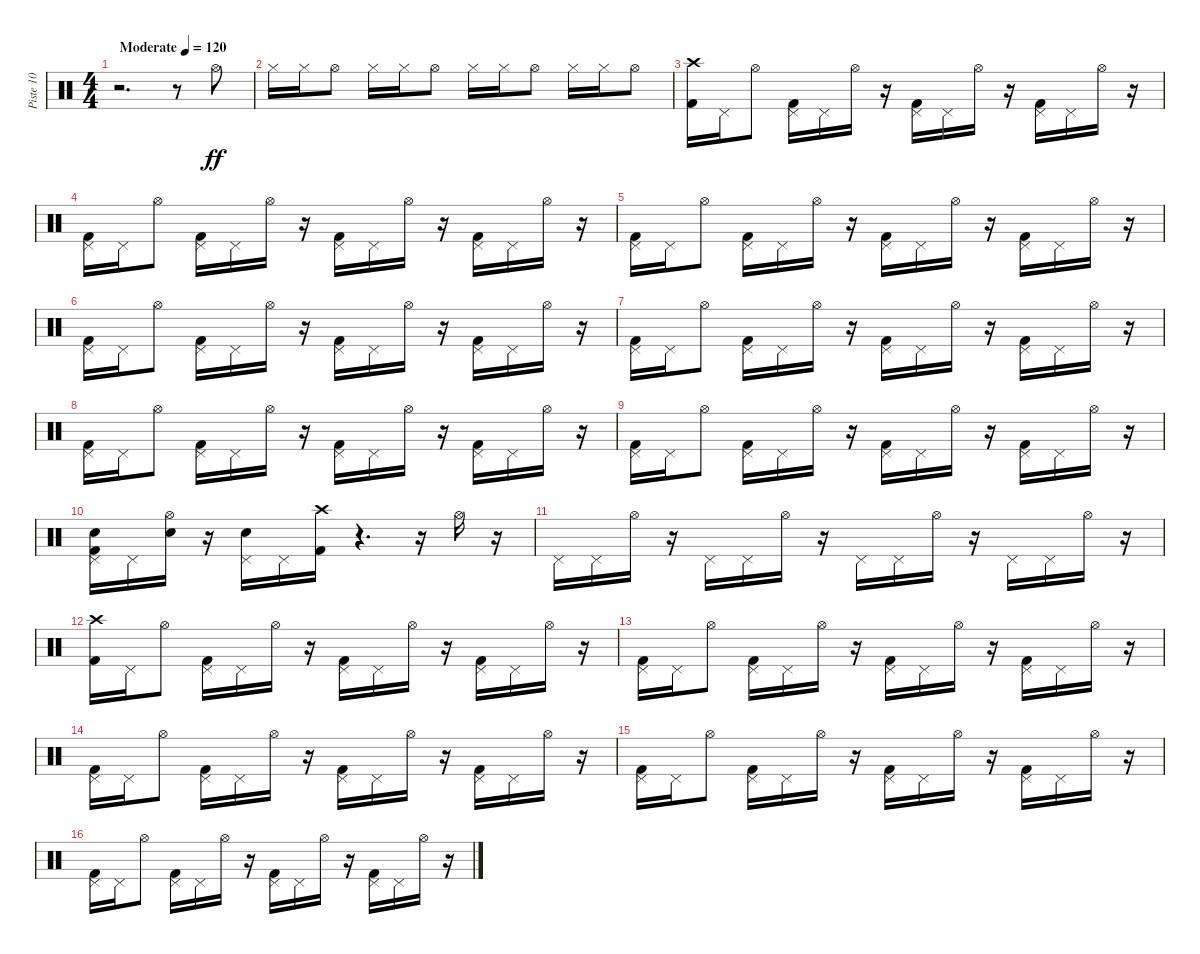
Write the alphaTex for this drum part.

\track ("Piste 10" "Piste 10") {instrument percussion}
\staff {score}
\articulation defaults
\ts (4 4)
\tempo (120 "Moderate")
\clef neutral
\ks c
r.2{d dy ff} r.8 "Hi-Hat (open)".8 |
"Hi-Hat (closed)".16 "Hi-Hat (closed)".16 "Hi-Hat (open)".8 "Hi-Hat (closed)".16{balance 4} "Hi-Hat (closed)".16 "Hi-Hat (open)".8{balance 4} "Hi-Hat (closed)".16{balance 12} "Hi-Hat (closed)".16 "Hi-Hat (open)".8 "Hi-Hat (closed)".16{balance 4} "Hi-Hat (closed)".16 "Hi-Hat (open)".8 |
("Crash high (hit)" "Kick (hit) 2").16{balance 8} "Pedal Hi-Hat (hit)".16 "Hi-Hat (open)".8 ("Kick (hit) 2" "Pedal Hi-Hat (hit)").16 "Pedal Hi-Hat (hit)".16 "Hi-Hat (open)".16 r.16 ("Kick (hit) 2" "Pedal Hi-Hat (hit)").16 "Pedal Hi-Hat (hit)".16 "Hi-Hat (open)".16 r.16 ("Kick (hit) 2" "Pedal Hi-Hat (hit)").16 "Pedal Hi-Hat (hit)".16 "Hi-Hat (open)".16 r.16 |
("Kick (hit) 2" "Pedal Hi-Hat (hit)").16 "Pedal Hi-Hat (hit)".16 "Hi-Hat (open)".8 ("Kick (hit) 2" "Pedal Hi-Hat (hit)").16 "Pedal Hi-Hat (hit)".16 "Hi-Hat (open)".16 r.16 ("Kick (hit) 2" "Pedal Hi-Hat (hit)").16 "Pedal Hi-Hat (hit)".16 "Hi-Hat (open)".16 r.16 ("Kick (hit) 2" "Pedal Hi-Hat (hit)").16 "Pedal Hi-Hat (hit)".16 "Hi-Hat (open)".16 r.16 |
("Kick (hit) 2" "Pedal Hi-Hat (hit)").16 "Pedal Hi-Hat (hit)".16 "Hi-Hat (open)".8 ("Kick (hit) 2" "Pedal Hi-Hat (hit)").16 "Pedal Hi-Hat (hit)".16 "Hi-Hat (open)".16 r.16 ("Kick (hit) 2" "Pedal Hi-Hat (hit)").16 "Pedal Hi-Hat (hit)".16 "Hi-Hat (open)".16 r.16 ("Kick (hit) 2" "Pedal Hi-Hat (hit)").16 "Pedal Hi-Hat (hit)".16 "Hi-Hat (open)".16 r.16 |
("Kick (hit) 2" "Pedal Hi-Hat (hit)").16 "Pedal Hi-Hat (hit)".16 "Hi-Hat (open)".8 ("Kick (hit) 2" "Pedal Hi-Hat (hit)").16 "Pedal Hi-Hat (hit)".16 "Hi-Hat (open)".16 r.16 ("Kick (hit) 2" "Pedal Hi-Hat (hit)").16 "Pedal Hi-Hat (hit)".16 "Hi-Hat (open)".16 r.16 ("Kick (hit) 2" "Pedal Hi-Hat (hit)").16 "Pedal Hi-Hat (hit)".16 "Hi-Hat (open)".16 r.16 |
("Kick (hit) 2" "Pedal Hi-Hat (hit)").16 "Pedal Hi-Hat (hit)".16 "Hi-Hat (open)".8 ("Kick (hit) 2" "Pedal Hi-Hat (hit)").16 "Pedal Hi-Hat (hit)".16 "Hi-Hat (open)".16 r.16 ("Kick (hit) 2" "Pedal Hi-Hat (hit)").16 "Pedal Hi-Hat (hit)".16 "Hi-Hat (open)".16 r.16 ("Kick (hit) 2" "Pedal Hi-Hat (hit)").16 "Pedal Hi-Hat (hit)".16 "Hi-Hat (open)".16 r.16 |
("Kick (hit) 2" "Pedal Hi-Hat (hit)").16 "Pedal Hi-Hat (hit)".16 "Hi-Hat (open)".8 ("Kick (hit) 2" "Pedal Hi-Hat (hit)").16 "Pedal Hi-Hat (hit)".16 "Hi-Hat (open)".16 r.16 ("Kick (hit) 2" "Pedal Hi-Hat (hit)").16 "Pedal Hi-Hat (hit)".16 "Hi-Hat (open)".16 r.16 ("Kick (hit) 2" "Pedal Hi-Hat (hit)").16 "Pedal Hi-Hat (hit)".16 "Hi-Hat (open)".16 r.16 |
("Kick (hit) 2" "Pedal Hi-Hat (hit)").16 "Pedal Hi-Hat (hit)".16 "Hi-Hat (open)".8 ("Kick (hit) 2" "Pedal Hi-Hat (hit)").16 "Pedal Hi-Hat (hit)".16 "Hi-Hat (open)".16 r.16 ("Kick (hit) 2" "Pedal Hi-Hat (hit)").16 "Pedal Hi-Hat (hit)".16 "Hi-Hat (open)".16 r.16 ("Kick (hit) 2" "Pedal Hi-Hat (hit)").16 "Pedal Hi-Hat (hit)".16 "Hi-Hat (open)".16 r.16 |
("Kick (hit) 2" "Snare (hit) 2" "Pedal Hi-Hat (hit)").16 "Pedal Hi-Hat (hit)".16 ("Snare (hit) 2" "Hi-Hat (open)").16 r.16 ("Snare (hit) 2" "Pedal Hi-Hat (hit)").16 "Pedal Hi-Hat (hit)".16 ("Kick (hit) 2" "Crash high (hit)").16 r.4{d} r.16 "Hi-Hat (open)".16 r.16 |
"Pedal Hi-Hat (hit)".16 "Pedal Hi-Hat (hit)".16 "Hi-Hat (open)".16 r.16 "Pedal Hi-Hat (hit)".16 "Pedal Hi-Hat (hit)".16 "Hi-Hat (open)".16 r.16 "Pedal Hi-Hat (hit)".16 "Pedal Hi-Hat (hit)".16 "Hi-Hat (open)".16 r.16 "Pedal Hi-Hat (hit)".16 "Pedal Hi-Hat (hit)".16 "Hi-Hat (open)".16 r.16 |
("Crash high (hit)" "Kick (hit) 2").16 "Pedal Hi-Hat (hit)".16 "Hi-Hat (open)".8 ("Kick (hit) 2" "Pedal Hi-Hat (hit)").16 "Pedal Hi-Hat (hit)".16 "Hi-Hat (open)".16 r.16 ("Kick (hit) 2" "Pedal Hi-Hat (hit)").16 "Pedal Hi-Hat (hit)".16 "Hi-Hat (open)".16 r.16 ("Kick (hit) 2" "Pedal Hi-Hat (hit)").16 "Pedal Hi-Hat (hit)".16 "Hi-Hat (open)".16 r.16 |
("Kick (hit) 2" "Pedal Hi-Hat (hit)").16 "Pedal Hi-Hat (hit)".16 "Hi-Hat (open)".8 ("Kick (hit) 2" "Pedal Hi-Hat (hit)").16 "Pedal Hi-Hat (hit)".16 "Hi-Hat (open)".16 r.16 ("Kick (hit) 2" "Pedal Hi-Hat (hit)").16 "Pedal Hi-Hat (hit)".16 "Hi-Hat (open)".16 r.16 ("Kick (hit) 2" "Pedal Hi-Hat (hit)").16 "Pedal Hi-Hat (hit)".16 "Hi-Hat (open)".16 r.16 |
("Kick (hit) 2" "Pedal Hi-Hat (hit)").16 "Pedal Hi-Hat (hit)".16 "Hi-Hat (open)".8 ("Kick (hit) 2" "Pedal Hi-Hat (hit)").16 "Pedal Hi-Hat (hit)".16 "Hi-Hat (open)".16 r.16 ("Kick (hit) 2" "Pedal Hi-Hat (hit)").16 "Pedal Hi-Hat (hit)".16 "Hi-Hat (open)".16 r.16 ("Kick (hit) 2" "Pedal Hi-Hat (hit)").16 "Pedal Hi-Hat (hit)".16 "Hi-Hat (open)".16 r.16 |
("Kick (hit) 2" "Pedal Hi-Hat (hit)").16 "Pedal Hi-Hat (hit)".16 "Hi-Hat (open)".8 ("Kick (hit) 2" "Pedal Hi-Hat (hit)").16 "Pedal Hi-Hat (hit)".16 "Hi-Hat (open)".16 r.16 ("Kick (hit) 2" "Pedal Hi-Hat (hit)").16 "Pedal Hi-Hat (hit)".16 "Hi-Hat (open)".16 r.16 ("Kick (hit) 2" "Pedal Hi-Hat (hit)").16 "Pedal Hi-Hat (hit)".16 "Hi-Hat (open)".16 r.16 |
("Kick (hit) 2" "Pedal Hi-Hat (hit)").16 "Pedal Hi-Hat (hit)".16 "Hi-Hat (open)".8 ("Kick (hit) 2" "Pedal Hi-Hat (hit)").16 "Pedal Hi-Hat (hit)".16 "Hi-Hat (open)".16 r.16 ("Kick (hit) 2" "Pedal Hi-Hat (hit)").16 "Pedal Hi-Hat (hit)".16 "Hi-Hat (open)".16 r.16 ("Kick (hit) 2" "Pedal Hi-Hat (hit)").16 "Pedal Hi-Hat (hit)".16 "Hi-Hat (open)".16 r.16
